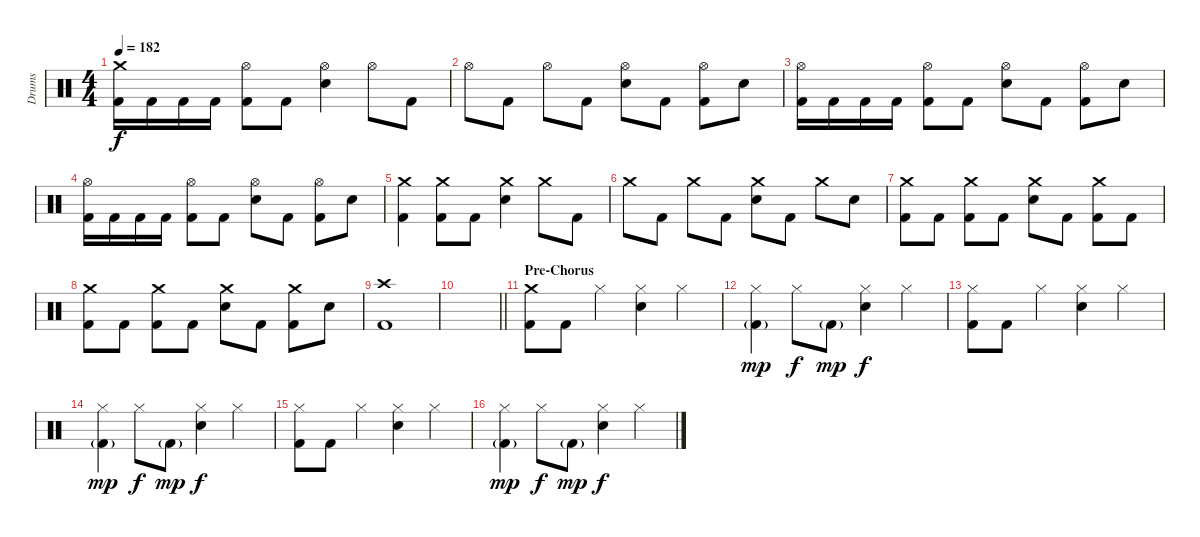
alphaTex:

\track ("Drums" "Drums") {instrument percussion}
\staff {score}
\articulation defaults
\ts (4 4)
\tempo 182
\clef neutral
\ks c
("Crash medium (hit)" "Kick (hit) 2").16{dy f} "Kick (hit) 2".16 "Kick (hit) 2".16 "Kick (hit) 2".16 ("Hi-Hat (open)" "Kick (hit) 2").8 "Kick (hit) 2".8 ("Hi-Hat (open)" "Electric Snare (hit)").4 "Hi-Hat (open)".8 "Kick (hit) 2".8 |
"Hi-Hat (open)".8 "Kick (hit) 2".8 "Hi-Hat (open)".8 "Kick (hit) 2".8 ("Hi-Hat (open)" "Electric Snare (hit)").8 "Kick (hit) 2".8 ("Hi-Hat (open)" "Kick (hit) 2").8 "Electric Snare (hit)".8 |
("Hi-Hat (open)" "Kick (hit) 2").16 "Kick (hit) 2".16 "Kick (hit) 2".16 "Kick (hit) 2".16 ("Hi-Hat (open)" "Kick (hit) 2").8 "Kick (hit) 2".8 ("Hi-Hat (open)" "Electric Snare (hit)").8 "Kick (hit) 2".8 ("Hi-Hat (open)" "Kick (hit) 2").8 "Electric Snare (hit)".8 |
("Hi-Hat (open)" "Kick (hit) 2").16 "Kick (hit) 2".16 "Kick (hit) 2".16 "Kick (hit) 2".16 ("Hi-Hat (open)" "Kick (hit) 2").8 "Kick (hit) 2".8 ("Hi-Hat (open)" "Electric Snare (hit)").8 "Kick (hit) 2".8 ("Hi-Hat (open)" "Kick (hit) 2").8 "Electric Snare (hit)".8 |
("Crash medium (hit)" "Kick (hit) 2").4 ("Crash medium (hit)" "Kick (hit) 2").8 "Kick (hit) 2".8 ("Crash medium (hit)" "Electric Snare (hit)").4 "Crash medium (hit)".8 "Kick (hit) 2".8 |
"Crash medium (hit)".8 "Kick (hit) 2".8 "Crash medium (hit)".8 "Kick (hit) 2".8 ("Crash medium (hit)" "Electric Snare (hit)").8 "Kick (hit) 2".8 "Crash medium (hit)".8 "Electric Snare (hit)".8 |
("Crash medium (hit)" "Kick (hit) 2").8 "Kick (hit) 2".8 ("Crash medium (hit)" "Kick (hit) 2").8 "Kick (hit) 2".8 ("Crash medium (hit)" "Electric Snare (hit)").8 "Kick (hit) 2".8 ("Crash medium (hit)" "Kick (hit) 2").8 "Kick (hit) 2".8 |
("Crash medium (hit)" "Kick (hit) 2").8 "Kick (hit) 2".8 ("Crash medium (hit)" "Kick (hit) 2").8 "Kick (hit) 2".8 ("Crash medium (hit)" "Electric Snare (hit)").8 "Kick (hit) 2".8 ("Crash medium (hit)" "Kick (hit) 2").8 "Electric Snare (hit)".8 |
("Crash high (hit)" "Kick (hit) 2").1 |
\barLineRight lightlight
|
\section ("" "Pre-Chorus")
("Crash medium (hit)" "Kick (hit) 2").8 "Kick (hit) 2".8 "Hi-Hat (closed)".4 ("Hi-Hat (closed)" "Electric Snare (hit)").4 "Hi-Hat (closed)".4 |
("Hi-Hat (closed)" "Kick (hit) 2"{g}).4{dy mp} "Hi-Hat (closed)".8{dy f} "Kick (hit) 2"{g}.8{dy mp} ("Hi-Hat (closed)" "Electric Snare (hit)").4{dy f} "Hi-Hat (closed)".4 |
("Hi-Hat (closed)" "Kick (hit) 2").8 "Kick (hit) 2".8 "Hi-Hat (closed)".4 ("Hi-Hat (closed)" "Electric Snare (hit)").4 "Hi-Hat (closed)".4 |
("Hi-Hat (closed)" "Kick (hit) 2"{g}).4{dy mp} "Hi-Hat (closed)".8{dy f} "Kick (hit) 2"{g}.8{dy mp} ("Hi-Hat (closed)" "Electric Snare (hit)").4{dy f} "Hi-Hat (closed)".4 |
("Hi-Hat (closed)" "Kick (hit) 2").8 "Kick (hit) 2".8 "Hi-Hat (closed)".4 ("Hi-Hat (closed)" "Electric Snare (hit)").4 "Hi-Hat (closed)".4 |
("Hi-Hat (closed)" "Kick (hit) 2"{g}).4{dy mp} "Hi-Hat (closed)".8{dy f} "Kick (hit) 2"{g}.8{dy mp} ("Hi-Hat (closed)" "Electric Snare (hit)").4{dy f} "Hi-Hat (closed)".4
